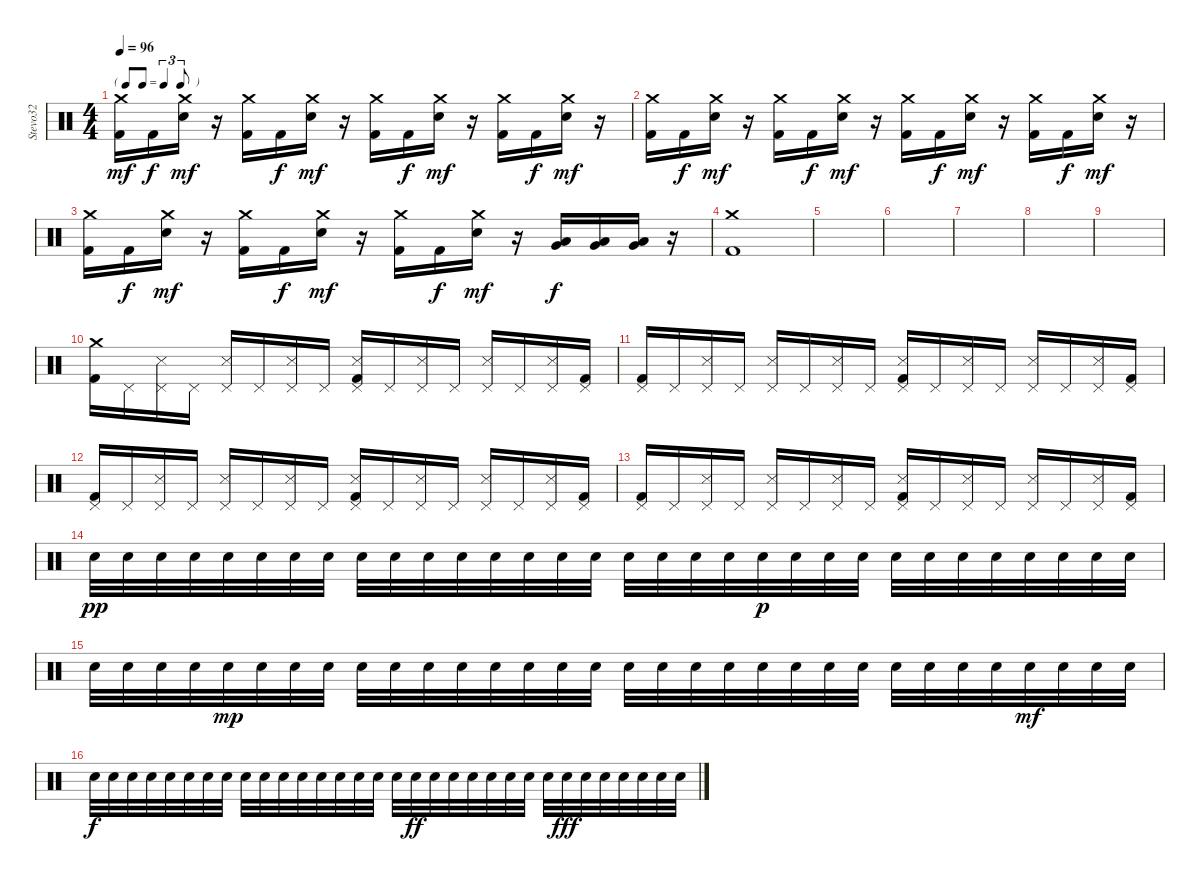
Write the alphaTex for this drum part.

\track ("Stevo32" "Stevo32") {instrument percussion}
\staff {score}
\articulation defaults
\ts (4 4)
\tf triplet8th
\tempo 96
\clef neutral
\ks c
("Crash medium (hit)" "Kick (hit) 2").16{dy mf} "Kick (hit) 2".16{dy f} ("Crash medium (hit)" "Electric Snare (hit)").16{dy mf} r.16 ("Crash medium (hit)" "Kick (hit) 2").16 "Kick (hit) 2".16{dy f} ("Crash medium (hit)" "Electric Snare (hit)").16{dy mf} r.16 ("Crash medium (hit)" "Kick (hit) 2").16 "Kick (hit) 2".16{dy f} ("Crash medium (hit)" "Electric Snare (hit)").16{dy mf} r.16 ("Crash medium (hit)" "Kick (hit) 2").16 "Kick (hit) 2".16{dy f} ("Crash medium (hit)" "Electric Snare (hit)").16{dy mf} r.16 |
("Crash medium (hit)" "Kick (hit) 2").16 "Kick (hit) 2".16{dy f} ("Crash medium (hit)" "Electric Snare (hit)").16{dy mf} r.16 ("Crash medium (hit)" "Kick (hit) 2").16 "Kick (hit) 2".16{dy f} ("Crash medium (hit)" "Electric Snare (hit)").16{dy mf} r.16 ("Crash medium (hit)" "Kick (hit) 2").16 "Kick (hit) 2".16{dy f} ("Crash medium (hit)" "Electric Snare (hit)").16{dy mf} r.16 ("Crash medium (hit)" "Kick (hit) 2").16 "Kick (hit) 2".16{dy f} ("Crash medium (hit)" "Electric Snare (hit)").16{dy mf} r.16 |
("Crash medium (hit)" "Kick (hit) 2").16 "Kick (hit) 2".16{dy f} ("Crash medium (hit)" "Electric Snare (hit)").16{dy mf} r.16 ("Crash medium (hit)" "Kick (hit) 2").16 "Kick (hit) 2".16{dy f} ("Crash medium (hit)" "Electric Snare (hit)").16{dy mf} r.16 ("Crash medium (hit)" "Kick (hit) 2").16 "Kick (hit) 2".16{dy f} ("Crash medium (hit)" "Electric Snare (hit)").16{dy mf} r.16 ("Low Floor Tom (hit)" "Very Low Tom (hit)").16{dy f} ("Low Floor Tom (hit)" "Very Low Tom (hit)").16 ("Low Floor Tom (hit)" "Very Low Tom (hit)").16 r.16 |
("Kick (hit) 2" "Crash medium (hit)").1 |
|
|
|
|
|
("Crash medium (hit)" "Kick (hit) 2").16 "Pedal Hi-Hat (hit)".16 ("Pedal Hi-Hat (hit)" "Metronome (hit)").16 "Pedal Hi-Hat (hit)".16 ("Pedal Hi-Hat (hit)" "Metronome (hit)").16 "Pedal Hi-Hat (hit)".16 ("Pedal Hi-Hat (hit)" "Metronome (hit)").16 "Pedal Hi-Hat (hit)".16 ("Kick (hit) 2" "Pedal Hi-Hat (hit)" "Metronome (hit)").16 "Pedal Hi-Hat (hit)".16 ("Pedal Hi-Hat (hit)" "Metronome (hit)").16 "Pedal Hi-Hat (hit)".16 ("Pedal Hi-Hat (hit)" "Metronome (hit)").16 "Pedal Hi-Hat (hit)".16 ("Pedal Hi-Hat (hit)" "Metronome (hit)").16 ("Kick (hit) 2" "Pedal Hi-Hat (hit)").16 |
("Pedal Hi-Hat (hit)" "Kick (hit) 2").16 "Pedal Hi-Hat (hit)".16 ("Pedal Hi-Hat (hit)" "Metronome (hit)").16 "Pedal Hi-Hat (hit)".16 ("Pedal Hi-Hat (hit)" "Metronome (hit)").16 "Pedal Hi-Hat (hit)".16 ("Pedal Hi-Hat (hit)" "Metronome (hit)").16 "Pedal Hi-Hat (hit)".16 ("Kick (hit) 2" "Pedal Hi-Hat (hit)" "Metronome (hit)").16 "Pedal Hi-Hat (hit)".16 ("Pedal Hi-Hat (hit)" "Metronome (hit)").16 "Pedal Hi-Hat (hit)".16 ("Pedal Hi-Hat (hit)" "Metronome (hit)").16 "Pedal Hi-Hat (hit)".16 ("Pedal Hi-Hat (hit)" "Metronome (hit)").16 ("Kick (hit) 2" "Pedal Hi-Hat (hit)").16 |
("Pedal Hi-Hat (hit)" "Kick (hit) 2").16 "Pedal Hi-Hat (hit)".16 ("Pedal Hi-Hat (hit)" "Metronome (hit)").16 "Pedal Hi-Hat (hit)".16 ("Pedal Hi-Hat (hit)" "Metronome (hit)").16 "Pedal Hi-Hat (hit)".16 ("Pedal Hi-Hat (hit)" "Metronome (hit)").16 "Pedal Hi-Hat (hit)".16 ("Kick (hit) 2" "Pedal Hi-Hat (hit)" "Metronome (hit)").16 "Pedal Hi-Hat (hit)".16 ("Pedal Hi-Hat (hit)" "Metronome (hit)").16 "Pedal Hi-Hat (hit)".16 ("Pedal Hi-Hat (hit)" "Metronome (hit)").16 "Pedal Hi-Hat (hit)".16 ("Pedal Hi-Hat (hit)" "Metronome (hit)").16 ("Kick (hit) 2" "Pedal Hi-Hat (hit)").16 |
("Pedal Hi-Hat (hit)" "Kick (hit) 2").16 "Pedal Hi-Hat (hit)".16 ("Pedal Hi-Hat (hit)" "Metronome (hit)").16 "Pedal Hi-Hat (hit)".16 ("Pedal Hi-Hat (hit)" "Metronome (hit)").16 "Pedal Hi-Hat (hit)".16 ("Pedal Hi-Hat (hit)" "Metronome (hit)").16 "Pedal Hi-Hat (hit)".16 ("Kick (hit) 2" "Pedal Hi-Hat (hit)" "Metronome (hit)").16 "Pedal Hi-Hat (hit)".16 ("Pedal Hi-Hat (hit)" "Metronome (hit)").16 "Pedal Hi-Hat (hit)".16 ("Pedal Hi-Hat (hit)" "Metronome (hit)").16 "Pedal Hi-Hat (hit)".16 ("Pedal Hi-Hat (hit)" "Metronome (hit)").16 ("Kick (hit) 2" "Pedal Hi-Hat (hit)").16 |
"Electric Snare (hit)".32{dy pp} "Electric Snare (hit)".32 "Electric Snare (hit)".32 "Electric Snare (hit)".32 "Electric Snare (hit)".32 "Electric Snare (hit)".32 "Electric Snare (hit)".32 "Electric Snare (hit)".32 "Electric Snare (hit)".32 "Electric Snare (hit)".32 "Electric Snare (hit)".32 "Electric Snare (hit)".32 "Electric Snare (hit)".32 "Electric Snare (hit)".32 "Electric Snare (hit)".32 "Electric Snare (hit)".32 "Electric Snare (hit)".32 "Electric Snare (hit)".32 "Electric Snare (hit)".32 "Electric Snare (hit)".32 "Electric Snare (hit)".32{dy p} "Electric Snare (hit)".32 "Electric Snare (hit)".32 "Electric Snare (hit)".32 "Electric Snare (hit)".32 "Electric Snare (hit)".32 "Electric Snare (hit)".32 "Electric Snare (hit)".32 "Electric Snare (hit)".32 "Electric Snare (hit)".32 "Electric Snare (hit)".32 "Electric Snare (hit)".32 |
"Electric Snare (hit)".32 "Electric Snare (hit)".32 "Electric Snare (hit)".32 "Electric Snare (hit)".32 "Electric Snare (hit)".32{dy mp} "Electric Snare (hit)".32 "Electric Snare (hit)".32 "Electric Snare (hit)".32 "Electric Snare (hit)".32 "Electric Snare (hit)".32 "Electric Snare (hit)".32 "Electric Snare (hit)".32 "Electric Snare (hit)".32 "Electric Snare (hit)".32 "Electric Snare (hit)".32 "Electric Snare (hit)".32 "Electric Snare (hit)".32 "Electric Snare (hit)".32 "Electric Snare (hit)".32 "Electric Snare (hit)".32 "Electric Snare (hit)".32 "Electric Snare (hit)".32 "Electric Snare (hit)".32 "Electric Snare (hit)".32 "Electric Snare (hit)".32 "Electric Snare (hit)".32 "Electric Snare (hit)".32 "Electric Snare (hit)".32 "Electric Snare (hit)".32{dy mf} "Electric Snare (hit)".32 "Electric Snare (hit)".32 "Electric Snare (hit)".32 |
"Electric Snare (hit)".32{dy f} "Electric Snare (hit)".32 "Electric Snare (hit)".32 "Electric Snare (hit)".32 "Electric Snare (hit)".32 "Electric Snare (hit)".32 "Electric Snare (hit)".32 "Electric Snare (hit)".32 "Electric Snare (hit)".32 "Electric Snare (hit)".32 "Electric Snare (hit)".32 "Electric Snare (hit)".32 "Electric Snare (hit)".32 "Electric Snare (hit)".32 "Electric Snare (hit)".32 "Electric Snare (hit)".32 "Electric Snare (hit)".32 "Electric Snare (hit)".32{dy ff} "Electric Snare (hit)".32 "Electric Snare (hit)".32 "Electric Snare (hit)".32 "Electric Snare (hit)".32 "Electric Snare (hit)".32 "Electric Snare (hit)".32 "Electric Snare (hit)".32 "Electric Snare (hit)".32{dy fff} "Electric Snare (hit)".32 "Electric Snare (hit)".32 "Electric Snare (hit)".32 "Electric Snare (hit)".32 "Electric Snare (hit)".32 "Electric Snare (hit)".32
